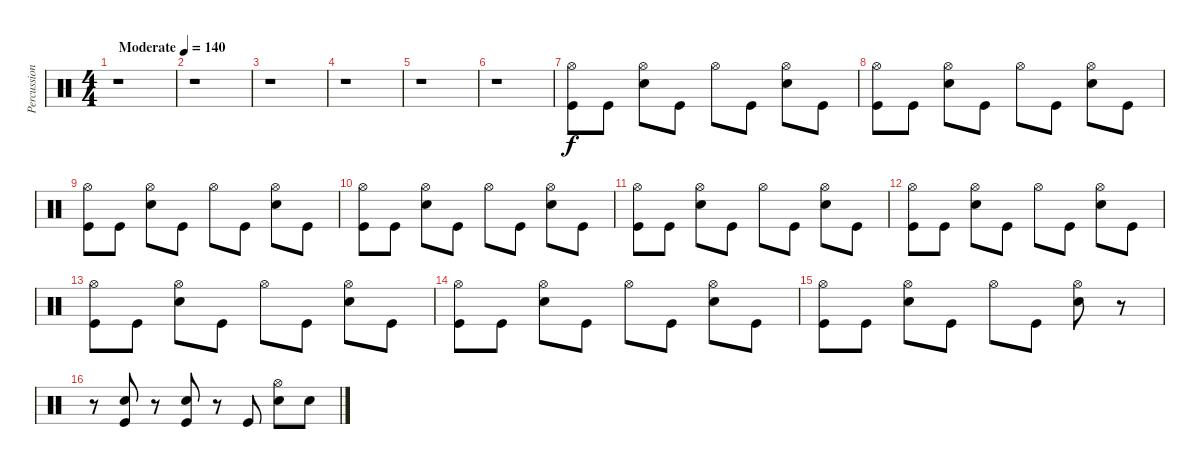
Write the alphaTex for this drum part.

\track ("Percussion" "Percussion") {instrument percussion}
\staff {score}
\articulation defaults
\ts (4 4)
\tempo (140 "Moderate")
\clef neutral
\ks c
r.1{dy f} |
r.1 |
r.1 |
r.1 |
r.1 |
r.1 |
("Hi-Hat (open)" "Kick (hit)").8 "Kick (hit)".8 ("Hi-Hat (open)" "Snare (hit) 2").8 "Kick (hit)".8 "Hi-Hat (open)".8 "Kick (hit)".8 ("Hi-Hat (open)" "Snare (hit) 2").8 "Kick (hit)".8 |
("Hi-Hat (open)" "Kick (hit)").8 "Kick (hit)".8 ("Hi-Hat (open)" "Snare (hit) 2").8 "Kick (hit)".8 "Hi-Hat (open)".8 "Kick (hit)".8 ("Hi-Hat (open)" "Snare (hit) 2").8 "Kick (hit)".8 |
("Hi-Hat (open)" "Kick (hit)").8 "Kick (hit)".8 ("Hi-Hat (open)" "Snare (hit) 2").8 "Kick (hit)".8 "Hi-Hat (open)".8 "Kick (hit)".8 ("Hi-Hat (open)" "Snare (hit) 2").8 "Kick (hit)".8 |
("Hi-Hat (open)" "Kick (hit)").8 "Kick (hit)".8 ("Hi-Hat (open)" "Snare (hit) 2").8 "Kick (hit)".8 "Hi-Hat (open)".8 "Kick (hit)".8 ("Hi-Hat (open)" "Snare (hit) 2").8 "Kick (hit)".8 |
("Hi-Hat (open)" "Kick (hit)").8 "Kick (hit)".8 ("Hi-Hat (open)" "Snare (hit) 2").8 "Kick (hit)".8 "Hi-Hat (open)".8 "Kick (hit)".8 ("Hi-Hat (open)" "Snare (hit) 2").8 "Kick (hit)".8 |
("Hi-Hat (open)" "Kick (hit)").8 "Kick (hit)".8 ("Hi-Hat (open)" "Snare (hit) 2").8 "Kick (hit)".8 "Hi-Hat (open)".8 "Kick (hit)".8 ("Hi-Hat (open)" "Snare (hit) 2").8 "Kick (hit)".8 |
("Hi-Hat (open)" "Kick (hit)").8 "Kick (hit)".8 ("Hi-Hat (open)" "Snare (hit) 2").8 "Kick (hit)".8 "Hi-Hat (open)".8 "Kick (hit)".8 ("Hi-Hat (open)" "Snare (hit) 2").8 "Kick (hit)".8 |
("Hi-Hat (open)" "Kick (hit)").8 "Kick (hit)".8 ("Hi-Hat (open)" "Snare (hit) 2").8 "Kick (hit)".8 "Hi-Hat (open)".8 "Kick (hit)".8 ("Hi-Hat (open)" "Snare (hit) 2").8 "Kick (hit)".8 |
("Hi-Hat (open)" "Kick (hit)").8 "Kick (hit)".8 ("Hi-Hat (open)" "Snare (hit) 2").8 "Kick (hit)".8 "Hi-Hat (open)".8 "Kick (hit)".8 ("Hi-Hat (open)" "Snare (hit) 2").8 r.8 |
r.8 ("Snare (hit) 2" "Kick (hit)").8 r.8 ("Snare (hit) 2" "Kick (hit)").8 r.8 "Kick (hit)".8 ("Hi-Hat (open)" "Snare (hit) 2").8 "Snare (hit) 2".8
